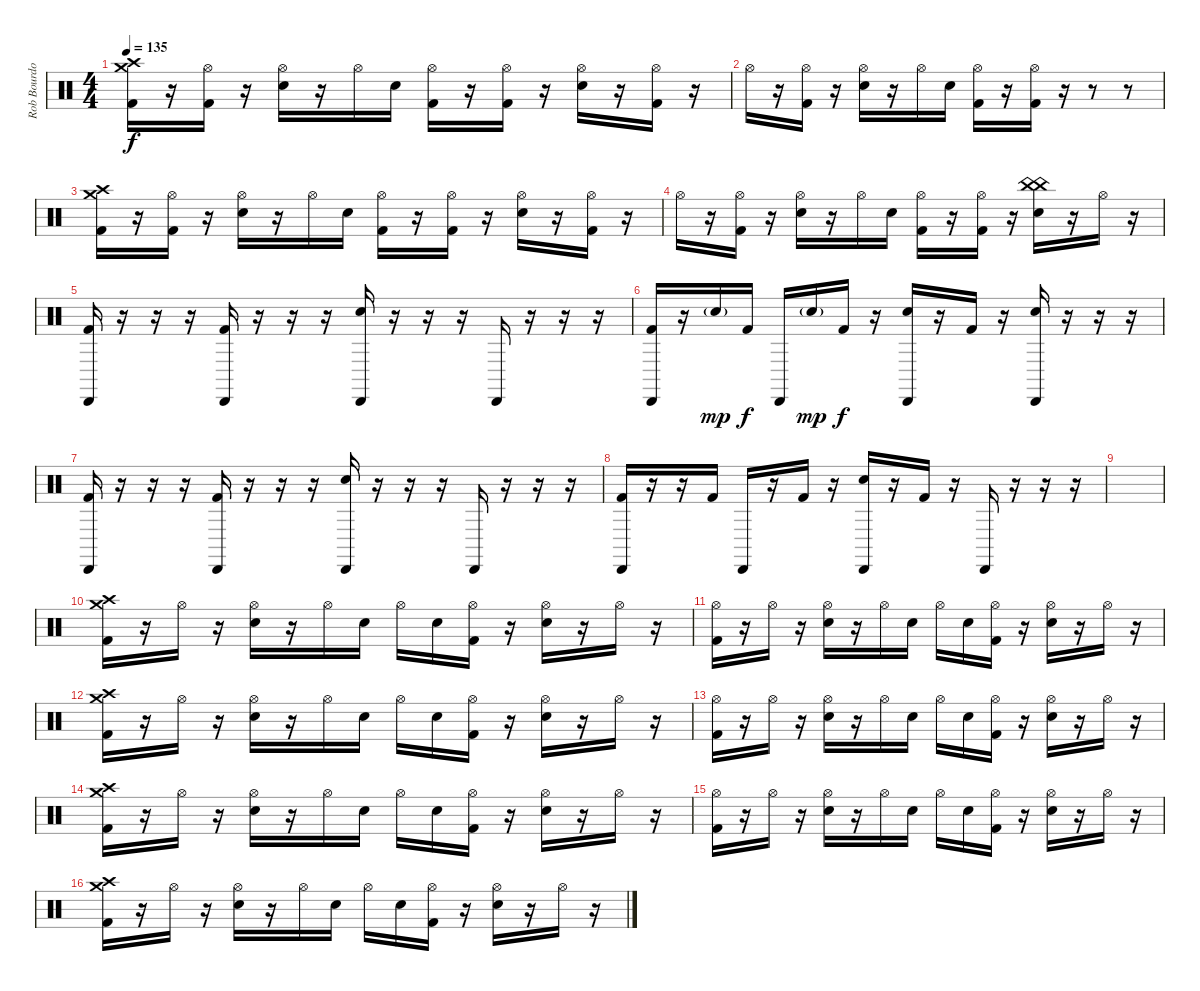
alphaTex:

\track ("Rob Bourdon (Drums)" "Rob Bourdo") {instrument percussion}
\staff {score}
\articulation defaults
\ts (4 4)
\tempo 135
\clef neutral
\ks c
("Crash high (hit)" "Crash medium (hit)" "Kick (hit) 2").16{dy f} r.16 ("Hi-Hat (open)" "Kick (hit) 2").16 r.16 ("Hi-Hat (open)" "Electric Snare (hit)").16 r.16 "Hi-Hat (open)".16 "Electric Snare (hit)".16 ("Hi-Hat (open)" "Kick (hit) 2").16 r.16 ("Hi-Hat (open)" "Kick (hit) 2").16 r.16 ("Hi-Hat (open)" "Electric Snare (hit)").16 r.16 ("Hi-Hat (open)" "Kick (hit) 2").16 r.16 |
"Hi-Hat (open)".16 r.16 ("Hi-Hat (open)" "Kick (hit) 2").16 r.16 ("Hi-Hat (open)" "Electric Snare (hit)").16 r.16 "Hi-Hat (open)".16 "Electric Snare (hit)".16 ("Hi-Hat (open)" "Kick (hit) 2").16 r.16 ("Hi-Hat (open)" "Kick (hit) 2").16 r.16 r.8 r.8 |
("Crash high (hit)" "Crash medium (hit)" "Kick (hit) 2").16 r.16 ("Hi-Hat (open)" "Kick (hit) 2").16 r.16 ("Hi-Hat (open)" "Electric Snare (hit)").16 r.16 "Hi-Hat (open)".16 "Electric Snare (hit)".16 ("Hi-Hat (open)" "Kick (hit) 2").16 r.16 ("Hi-Hat (open)" "Kick (hit) 2").16 r.16 ("Hi-Hat (open)" "Electric Snare (hit)").16 r.16 ("Hi-Hat (open)" "Kick (hit) 2").16 r.16 |
"Hi-Hat (open)".16 r.16 ("Hi-Hat (open)" "Kick (hit) 2").16 r.16 ("Hi-Hat (open)" "Electric Snare (hit)").16 r.16 "Hi-Hat (open)".16 "Electric Snare (hit)".16 ("Hi-Hat (open)" "Kick (hit) 2").16 r.16 ("Hi-Hat (open)" "Kick (hit) 2").16 r.16 ("China (hit)" "China (hit)" "Electric Snare (hit)").16 r.16 "Hi-Hat (open)".16 r.16 |
("Cabasa (hit)" "Kick (hit) 2").16 r.16 r.16 r.16 ("Cabasa (hit)" "Kick (hit) 2").16 r.16 r.16 r.16 ("Cabasa (hit)" "Hand Clap (hit)").16 r.16 r.16 r.16 "Cabasa (hit)".16 r.16 r.16 r.16 |
("Cabasa (hit)" "Kick (hit) 2").16 r.16 "Hand Clap (hit)"{g}.16{dy mp} "Kick (hit) 2".16{dy f} "Cabasa (hit)".16 "Hand Clap (hit)"{g}.16{dy mp} "Kick (hit) 2".16{dy f} r.16 ("Cabasa (hit)" "Hand Clap (hit)").16 r.16 "Kick (hit) 2".16 r.16 ("Cabasa (hit)" "Hand Clap (hit)").16 r.16 r.16 r.16 |
("Cabasa (hit)" "Kick (hit) 2").16 r.16 r.16 r.16 ("Cabasa (hit)" "Kick (hit) 2").16 r.16 r.16 r.16 ("Cabasa (hit)" "Hand Clap (hit)").16 r.16 r.16 r.16 "Cabasa (hit)".16 r.16 r.16 r.16 |
("Cabasa (hit)" "Kick (hit) 2").16 r.16 r.16 "Kick (hit) 2".16 "Cabasa (hit)".16 r.16 "Kick (hit) 2".16 r.16 ("Cabasa (hit)" "Hand Clap (hit)").16 r.16 "Kick (hit) 2".16 r.16 "Cabasa (hit)".16 r.16 r.16 r.16 |
|
("Crash high (hit)" "Crash medium (hit)" "Kick (hit) 2").16 r.16 "Hi-Hat (open)".16 r.16 ("Hi-Hat (open)" "Electric Snare (hit)").16 r.16 "Hi-Hat (open)".16 "Electric Snare (hit)".16 "Hi-Hat (open)".16 "Electric Snare (hit)".16 ("Hi-Hat (open)" "Kick (hit) 2").16 r.16 ("Hi-Hat (open)" "Electric Snare (hit)").16 r.16 "Hi-Hat (open)".16 r.16 |
("Hi-Hat (open)" "Kick (hit) 2").16 r.16 "Hi-Hat (open)".16 r.16 ("Hi-Hat (open)" "Electric Snare (hit)").16 r.16 "Hi-Hat (open)".16 "Electric Snare (hit)".16 "Hi-Hat (open)".16 "Electric Snare (hit)".16 ("Hi-Hat (open)" "Kick (hit) 2").16 r.16 ("Hi-Hat (open)" "Electric Snare (hit)").16 r.16 "Hi-Hat (open)".16 r.16 |
("Crash high (hit)" "Crash medium (hit)" "Kick (hit) 2").16 r.16 "Hi-Hat (open)".16 r.16 ("Hi-Hat (open)" "Electric Snare (hit)").16 r.16 "Hi-Hat (open)".16 "Electric Snare (hit)".16 "Hi-Hat (open)".16 "Electric Snare (hit)".16 ("Hi-Hat (open)" "Kick (hit) 2").16 r.16 ("Hi-Hat (open)" "Electric Snare (hit)").16 r.16 "Hi-Hat (open)".16 r.16 |
("Hi-Hat (open)" "Kick (hit) 2").16 r.16 "Hi-Hat (open)".16 r.16 ("Hi-Hat (open)" "Electric Snare (hit)").16 r.16 "Hi-Hat (open)".16 "Electric Snare (hit)".16 "Hi-Hat (open)".16 "Electric Snare (hit)".16 ("Hi-Hat (open)" "Kick (hit) 2").16 r.16 ("Hi-Hat (open)" "Electric Snare (hit)").16 r.16 "Hi-Hat (open)".16 r.16 |
("Crash high (hit)" "Crash medium (hit)" "Kick (hit) 2").16 r.16 "Hi-Hat (open)".16 r.16 ("Hi-Hat (open)" "Electric Snare (hit)").16 r.16 "Hi-Hat (open)".16 "Electric Snare (hit)".16 "Hi-Hat (open)".16 "Electric Snare (hit)".16 ("Hi-Hat (open)" "Kick (hit) 2").16 r.16 ("Hi-Hat (open)" "Electric Snare (hit)").16 r.16 "Hi-Hat (open)".16 r.16 |
("Hi-Hat (open)" "Kick (hit) 2").16 r.16 "Hi-Hat (open)".16 r.16 ("Hi-Hat (open)" "Electric Snare (hit)").16 r.16 "Hi-Hat (open)".16 "Electric Snare (hit)".16 "Hi-Hat (open)".16 "Electric Snare (hit)".16 ("Hi-Hat (open)" "Kick (hit) 2").16 r.16 ("Hi-Hat (open)" "Electric Snare (hit)").16 r.16 "Hi-Hat (open)".16 r.16 |
("Crash high (hit)" "Crash medium (hit)" "Kick (hit) 2").16 r.16 "Hi-Hat (open)".16 r.16 ("Hi-Hat (open)" "Electric Snare (hit)").16 r.16 "Hi-Hat (open)".16 "Electric Snare (hit)".16 "Hi-Hat (open)".16 "Electric Snare (hit)".16 ("Hi-Hat (open)" "Kick (hit) 2").16 r.16 ("Hi-Hat (open)" "Electric Snare (hit)").16 r.16 "Hi-Hat (open)".16 r.16
